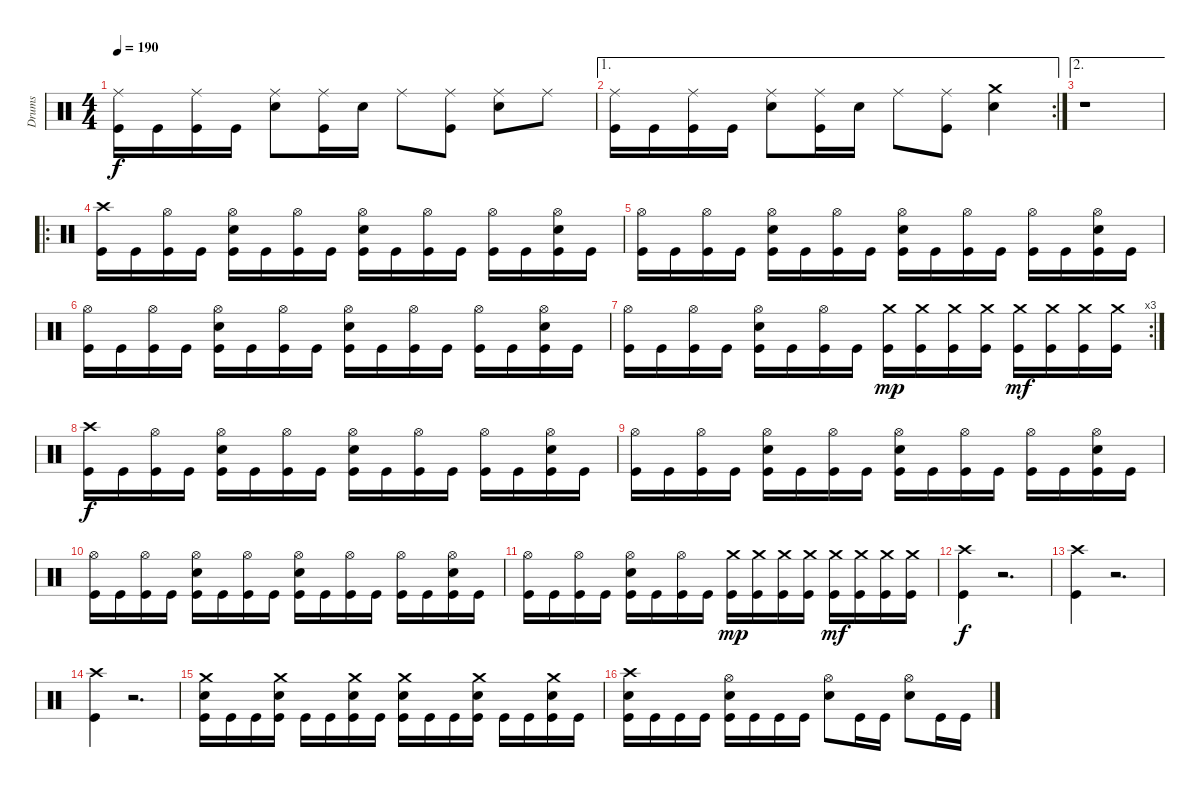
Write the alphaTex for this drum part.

\track ("Drums" "Drums") {instrument percussion}
\staff {score}
\articulation defaults
\ts (4 4)
\tempo 190
\clef neutral
\ks c
("Ride (middle)" "Kick (hit)").16{dy f} "Kick (hit)".16 ("Ride (middle)" "Kick (hit)").16 "Kick (hit)".16 ("Ride (middle)" "Electric Snare (hit)").8 ("Ride (middle)" "Kick (hit)").16 "Electric Snare (hit)".16 "Ride (middle)".8 ("Ride (middle)" "Kick (hit)").8 ("Ride (middle)" "Electric Snare (hit)").8 "Ride (middle)".8 |
\ae 1
\rc 2
("Ride (middle)" "Kick (hit)").16 "Kick (hit)".16 ("Ride (middle)" "Kick (hit)").16 "Kick (hit)".16 ("Ride (middle)" "Electric Snare (hit)").8 ("Ride (middle)" "Kick (hit)").16 "Electric Snare (hit)".16 "Ride (middle)".8 ("Ride (middle)" "Kick (hit)").8 ("Crash medium (hit)" "Electric Snare (hit)").4 |
\ae 2
r.1 |
\ro
("Crash high (hit)" "Kick (hit)").16 "Kick (hit)".16 ("Hi-Hat (open)" "Kick (hit)").16 "Kick (hit)".16 ("Hi-Hat (open)" "Electric Snare (hit)" "Kick (hit)").16 "Kick (hit)".16 ("Hi-Hat (open)" "Kick (hit)").16 "Kick (hit)".16 ("Hi-Hat (open)" "Electric Snare (hit)" "Kick (hit)").16 "Kick (hit)".16 ("Hi-Hat (open)" "Kick (hit)").16 "Kick (hit)".16 ("Hi-Hat (open)" "Kick (hit)").16 "Kick (hit)".16 ("Hi-Hat (open)" "Electric Snare (hit)" "Kick (hit)").16 "Kick (hit)".16 |
("Hi-Hat (open)" "Kick (hit)").16 "Kick (hit)".16 ("Hi-Hat (open)" "Kick (hit)").16 "Kick (hit)".16 ("Hi-Hat (open)" "Electric Snare (hit)" "Kick (hit)").16 "Kick (hit)".16 ("Hi-Hat (open)" "Kick (hit)").16 "Kick (hit)".16 ("Hi-Hat (open)" "Electric Snare (hit)" "Kick (hit)").16 "Kick (hit)".16 ("Hi-Hat (open)" "Kick (hit)").16 "Kick (hit)".16 ("Hi-Hat (open)" "Kick (hit)").16 "Kick (hit)".16 ("Hi-Hat (open)" "Electric Snare (hit)" "Kick (hit)").16 "Kick (hit)".16 |
("Hi-Hat (open)" "Kick (hit)").16 "Kick (hit)".16 ("Hi-Hat (open)" "Kick (hit)").16 "Kick (hit)".16 ("Hi-Hat (open)" "Electric Snare (hit)" "Kick (hit)").16 "Kick (hit)".16 ("Hi-Hat (open)" "Kick (hit)").16 "Kick (hit)".16 ("Hi-Hat (open)" "Electric Snare (hit)" "Kick (hit)").16 "Kick (hit)".16 ("Hi-Hat (open)" "Kick (hit)").16 "Kick (hit)".16 ("Hi-Hat (open)" "Kick (hit)").16 "Kick (hit)".16 ("Hi-Hat (open)" "Electric Snare (hit)" "Kick (hit)").16 "Kick (hit)".16 |
\rc 3
("Hi-Hat (open)" "Kick (hit)").16 "Kick (hit)".16 ("Hi-Hat (open)" "Kick (hit)").16 "Kick (hit)".16 ("Hi-Hat (open)" "Electric Snare (hit)" "Kick (hit)").16 "Kick (hit)".16 ("Hi-Hat (open)" "Kick (hit)").16 "Kick (hit)".16 ("Crash medium (hit)" "Kick (hit)").16{dy mp} ("Crash medium (hit)" "Kick (hit)").16 ("Crash medium (hit)" "Kick (hit)").16 ("Crash medium (hit)" "Kick (hit)").16 ("Crash medium (hit)" "Kick (hit)").16{dy mf} ("Crash medium (hit)" "Kick (hit)").16 ("Crash medium (hit)" "Kick (hit)").16 ("Crash medium (hit)" "Kick (hit)").16 |
("Crash high (hit)" "Kick (hit)").16{dy f} "Kick (hit)".16 ("Hi-Hat (open)" "Kick (hit)").16 "Kick (hit)".16 ("Hi-Hat (open)" "Electric Snare (hit)" "Kick (hit)").16 "Kick (hit)".16 ("Hi-Hat (open)" "Kick (hit)").16 "Kick (hit)".16 ("Hi-Hat (open)" "Electric Snare (hit)" "Kick (hit)").16 "Kick (hit)".16 ("Hi-Hat (open)" "Kick (hit)").16 "Kick (hit)".16 ("Hi-Hat (open)" "Kick (hit)").16 "Kick (hit)".16 ("Hi-Hat (open)" "Electric Snare (hit)" "Kick (hit)").16 "Kick (hit)".16 |
("Hi-Hat (open)" "Kick (hit)").16 "Kick (hit)".16 ("Hi-Hat (open)" "Kick (hit)").16 "Kick (hit)".16 ("Hi-Hat (open)" "Electric Snare (hit)" "Kick (hit)").16 "Kick (hit)".16 ("Hi-Hat (open)" "Kick (hit)").16 "Kick (hit)".16 ("Hi-Hat (open)" "Electric Snare (hit)" "Kick (hit)").16 "Kick (hit)".16 ("Hi-Hat (open)" "Kick (hit)").16 "Kick (hit)".16 ("Hi-Hat (open)" "Kick (hit)").16 "Kick (hit)".16 ("Hi-Hat (open)" "Electric Snare (hit)" "Kick (hit)").16 "Kick (hit)".16 |
("Hi-Hat (open)" "Kick (hit)").16 "Kick (hit)".16 ("Hi-Hat (open)" "Kick (hit)").16 "Kick (hit)".16 ("Hi-Hat (open)" "Electric Snare (hit)" "Kick (hit)").16 "Kick (hit)".16 ("Hi-Hat (open)" "Kick (hit)").16 "Kick (hit)".16 ("Hi-Hat (open)" "Electric Snare (hit)" "Kick (hit)").16 "Kick (hit)".16 ("Hi-Hat (open)" "Kick (hit)").16 "Kick (hit)".16 ("Hi-Hat (open)" "Kick (hit)").16 "Kick (hit)".16 ("Hi-Hat (open)" "Electric Snare (hit)" "Kick (hit)").16 "Kick (hit)".16 |
("Hi-Hat (open)" "Kick (hit)").16 "Kick (hit)".16 ("Hi-Hat (open)" "Kick (hit)").16 "Kick (hit)".16 ("Hi-Hat (open)" "Electric Snare (hit)" "Kick (hit)").16 "Kick (hit)".16 ("Hi-Hat (open)" "Kick (hit)").16 "Kick (hit)".16 ("Crash medium (hit)" "Kick (hit)").16{dy mp} ("Crash medium (hit)" "Kick (hit)").16 ("Crash medium (hit)" "Kick (hit)").16 ("Crash medium (hit)" "Kick (hit)").16 ("Crash medium (hit)" "Kick (hit)").16{dy mf} ("Crash medium (hit)" "Kick (hit)").16 ("Crash medium (hit)" "Kick (hit)").16 ("Crash medium (hit)" "Kick (hit)").16 |
("Crash high (hit)" "Kick (hit)").4{dy f} r.2{d volume 6} |
("Crash high (hit)" "Kick (hit)").4{volume 13} r.2{d volume 6} |
("Crash high (hit)" "Kick (hit)").4{volume 13} r.2{d volume 6} |
("Crash medium (hit)" "Electric Snare (hit)" "Kick (hit)").16{volume 13} "Kick (hit)".16 "Kick (hit)".16 ("Crash medium (hit)" "Electric Snare (hit)" "Kick (hit)").16 "Kick (hit)".16 "Kick (hit)".16 ("Crash medium (hit)" "Electric Snare (hit)" "Kick (hit)").16 "Kick (hit)".16 ("Crash medium (hit)" "Electric Snare (hit)" "Kick (hit)").16 "Kick (hit)".16 "Kick (hit)".16 ("Crash medium (hit)" "Electric Snare (hit)" "Kick (hit)").16 "Kick (hit)".16 "Kick (hit)".16 ("Crash medium (hit)" "Electric Snare (hit)" "Kick (hit)").16 "Kick (hit)".16 |
("Crash high (hit)" "Electric Snare (hit)" "Kick (hit)").16 "Kick (hit)".16 "Kick (hit)".16 "Kick (hit)".16 ("Hi-Hat (open)" "Electric Snare (hit)" "Kick (hit)").16 "Kick (hit)".16 "Kick (hit)".16 "Kick (hit)".16 ("Hi-Hat (open)" "Electric Snare (hit)").8 "Kick (hit)".16 "Kick (hit)".16 ("Hi-Hat (open)" "Electric Snare (hit)").8 "Kick (hit)".16 "Kick (hit)".16
